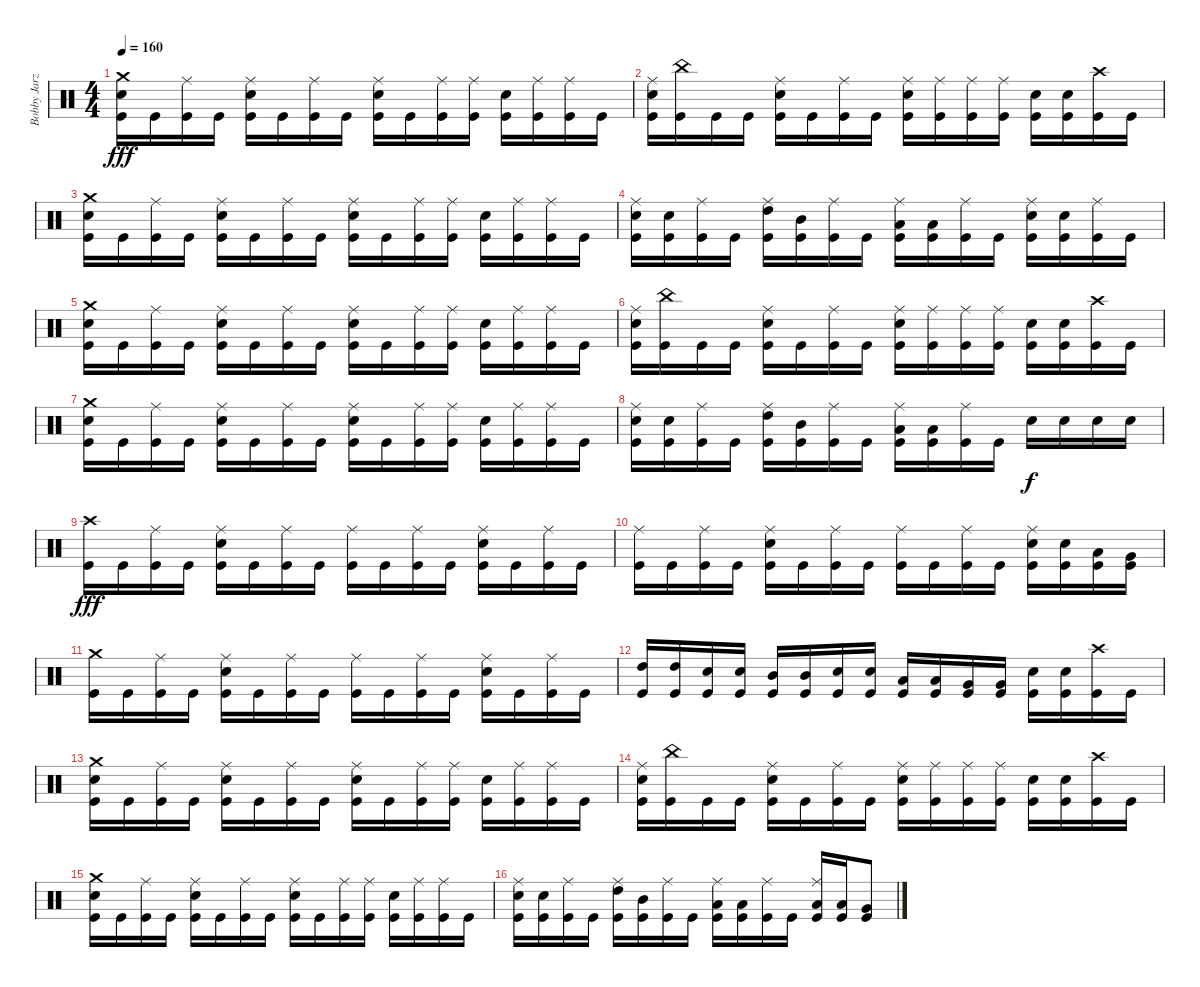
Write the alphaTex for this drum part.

\track ("Bobby Jarzombek" "Bobby Jarz") {instrument percussion}
\staff {score}
\articulation defaults
\ts (4 4)
\tempo 160
\clef neutral
\ks c
("Crash medium (hit)" "Electric Snare (hit)" "Kick (hit)").16{dy fff} "Kick (hit)".16 ("Ride (middle)" "Kick (hit)").16 "Kick (hit)".16 ("Ride (middle)" "Electric Snare (hit)" "Kick (hit)").16 "Kick (hit)".16 ("Ride (middle)" "Kick (hit)").16 "Kick (hit)".16 ("Ride (middle)" "Electric Snare (hit)" "Kick (hit)").16 "Kick (hit)".16 ("Ride (middle)" "Kick (hit)").16 ("Ride (middle)" "Kick (hit)").16 ("Electric Snare (hit)" "Kick (hit)").16 ("Ride (middle)" "Kick (hit)").16 ("Ride (middle)" "Kick (hit)").16 "Kick (hit)".16 |
("Ride (middle)" "Electric Snare (hit)" "Kick (hit)").16 ("China (hit)" "Kick (hit)").16 "Kick (hit)".16 "Kick (hit)".16 ("Ride (middle)" "Electric Snare (hit)" "Kick (hit)").16 "Kick (hit)".16 ("Ride (middle)" "Kick (hit)").16 "Kick (hit)".16 ("Ride (middle)" "Electric Snare (hit)" "Kick (hit)").16 ("Ride (middle)" "Kick (hit)").16 ("Ride (middle)" "Kick (hit)").16 ("Ride (middle)" "Kick (hit)").16 ("Electric Snare (hit)" "Kick (hit)").16 ("Electric Snare (hit)" "Kick (hit)").16 ("Crash high (hit)" "Kick (hit)").16 "Kick (hit)".16 |
("Crash medium (hit)" "Electric Snare (hit)" "Kick (hit)").16 "Kick (hit)".16 ("Ride (middle)" "Kick (hit)").16 "Kick (hit)".16 ("Ride (middle)" "Electric Snare (hit)" "Kick (hit)").16 "Kick (hit)".16 ("Ride (middle)" "Kick (hit)").16 "Kick (hit)".16 ("Ride (middle)" "Electric Snare (hit)" "Kick (hit)").16 "Kick (hit)".16 ("Ride (middle)" "Kick (hit)").16 ("Ride (middle)" "Kick (hit)").16 ("Electric Snare (hit)" "Kick (hit)").16 ("Ride (middle)" "Kick (hit)").16 ("Ride (middle)" "Kick (hit)").16 "Kick (hit)".16 |
("Ride (middle)" "Electric Snare (hit)" "Kick (hit)").16 ("Electric Snare (hit)" "Kick (hit)").16 ("Ride (middle)" "Kick (hit)").16 "Kick (hit)".16 ("Ride (middle)" "High Tom (hit)" "Kick (hit)").16 ("Mid Tom (hit)" "Kick (hit)").16 ("Ride (middle)" "Kick (hit)").16 "Kick (hit)".16 ("Ride (middle)" "Low Tom (hit)" "Kick (hit)").16 ("Low Tom (hit)" "Kick (hit)").16 ("Ride (middle)" "Kick (hit)").16 "Kick (hit)".16 ("Ride (middle)" "Electric Snare (hit)" "Kick (hit)").16 ("Electric Snare (hit)" "Kick (hit)").16 ("Ride (middle)" "Kick (hit)").16 "Kick (hit)".16 |
("Crash medium (hit)" "Electric Snare (hit)" "Kick (hit)").16 "Kick (hit)".16 ("Ride (middle)" "Kick (hit)").16 "Kick (hit)".16 ("Ride (middle)" "Electric Snare (hit)" "Kick (hit)").16 "Kick (hit)".16 ("Ride (middle)" "Kick (hit)").16 "Kick (hit)".16 ("Ride (middle)" "Electric Snare (hit)" "Kick (hit)").16 "Kick (hit)".16 ("Ride (middle)" "Kick (hit)").16 ("Ride (middle)" "Kick (hit)").16 ("Electric Snare (hit)" "Kick (hit)").16 ("Ride (middle)" "Kick (hit)").16 ("Ride (middle)" "Kick (hit)").16 "Kick (hit)".16 |
("Ride (middle)" "Electric Snare (hit)" "Kick (hit)").16 ("China (hit)" "Kick (hit)").16 "Kick (hit)".16 "Kick (hit)".16 ("Ride (middle)" "Electric Snare (hit)" "Kick (hit)").16 "Kick (hit)".16 ("Ride (middle)" "Kick (hit)").16 "Kick (hit)".16 ("Ride (middle)" "Electric Snare (hit)" "Kick (hit)").16 ("Ride (middle)" "Kick (hit)").16 ("Ride (middle)" "Kick (hit)").16 ("Ride (middle)" "Kick (hit)").16 ("Electric Snare (hit)" "Kick (hit)").16 ("Electric Snare (hit)" "Kick (hit)").16 ("Crash high (hit)" "Kick (hit)").16 "Kick (hit)".16 |
("Crash medium (hit)" "Electric Snare (hit)" "Kick (hit)").16 "Kick (hit)".16 ("Ride (middle)" "Kick (hit)").16 "Kick (hit)".16 ("Ride (middle)" "Electric Snare (hit)" "Kick (hit)").16 "Kick (hit)".16 ("Ride (middle)" "Kick (hit)").16 "Kick (hit)".16 ("Ride (middle)" "Electric Snare (hit)" "Kick (hit)").16 "Kick (hit)".16 ("Ride (middle)" "Kick (hit)").16 ("Ride (middle)" "Kick (hit)").16 ("Electric Snare (hit)" "Kick (hit)").16 ("Ride (middle)" "Kick (hit)").16 ("Ride (middle)" "Kick (hit)").16 "Kick (hit)".16 |
("Ride (middle)" "Electric Snare (hit)" "Kick (hit)").16 ("Electric Snare (hit)" "Kick (hit)").16 ("Ride (middle)" "Kick (hit)").16 "Kick (hit)".16 ("Ride (middle)" "High Tom (hit)" "Kick (hit)").16 ("Mid Tom (hit)" "Kick (hit)").16 ("Ride (middle)" "Kick (hit)").16 "Kick (hit)".16 ("Ride (middle)" "Low Tom (hit)" "Kick (hit)").16 ("Low Tom (hit)" "Kick (hit)").16 ("Ride (middle)" "Kick (hit)").16 "Kick (hit)".16 "Electric Snare (hit)".16{dy f} "Electric Snare (hit)".16 "Electric Snare (hit)".16 "Electric Snare (hit)".16 |
("Crash high (hit)" "Kick (hit)").16{dy fff} "Kick (hit)".16 ("Ride (middle)" "Kick (hit)").16 "Kick (hit)".16 ("Ride (middle)" "Electric Snare (hit)" "Kick (hit)").16 "Kick (hit)".16 ("Ride (middle)" "Kick (hit)").16 "Kick (hit)".16 ("Ride (middle)" "Kick (hit)").16 "Kick (hit)".16 ("Ride (middle)" "Kick (hit)").16 "Kick (hit)".16 ("Ride (middle)" "Electric Snare (hit)" "Kick (hit)").16 "Kick (hit)".16 ("Ride (middle)" "Kick (hit)").16 "Kick (hit)".16 |
("Ride (middle)" "Kick (hit)").16 "Kick (hit)".16 ("Ride (middle)" "Kick (hit)").16 "Kick (hit)".16 ("Ride (middle)" "Electric Snare (hit)" "Kick (hit)").16 "Kick (hit)".16 ("Ride (middle)" "Kick (hit)").16 "Kick (hit)".16 ("Ride (middle)" "Kick (hit)").16 "Kick (hit)".16 ("Ride (middle)" "Kick (hit)").16 "Kick (hit)".16 ("Ride (middle)" "Electric Snare (hit)" "Kick (hit)").16 ("Electric Snare (hit)" "Kick (hit)").16 ("Low Tom (hit)" "Kick (hit)").16 ("Very Low Tom (hit)" "Kick (hit)").16 |
("Crash medium (hit)" "Kick (hit)").16 "Kick (hit)".16 ("Ride (middle)" "Kick (hit)").16 "Kick (hit)".16 ("Ride (middle)" "Electric Snare (hit)" "Kick (hit)").16 "Kick (hit)".16 ("Ride (middle)" "Kick (hit)").16 "Kick (hit)".16 ("Ride (middle)" "Kick (hit)").16 "Kick (hit)".16 ("Ride (middle)" "Kick (hit)").16 "Kick (hit)".16 ("Ride (middle)" "Electric Snare (hit)" "Kick (hit)").16 "Kick (hit)".16 ("Ride (middle)" "Kick (hit)").16 "Kick (hit)".16 |
("High Tom (hit)" "Kick (hit)").16 ("High Tom (hit)" "Kick (hit)").16 ("Electric Snare (hit)" "Kick (hit)").16 ("Electric Snare (hit)" "Kick (hit)").16 ("Mid Tom (hit)" "Kick (hit)").16 ("Mid Tom (hit)" "Kick (hit)").16 ("Electric Snare (hit)" "Kick (hit)").16 ("Electric Snare (hit)" "Kick (hit)").16 ("Low Tom (hit)" "Kick (hit)").16 ("Low Tom (hit)" "Kick (hit)").16 ("Very Low Tom (hit)" "Kick (hit)").16 ("Very Low Tom (hit)" "Kick (hit)").16 ("Electric Snare (hit)" "Kick (hit)").16 ("Electric Snare (hit)" "Kick (hit)").16 ("Crash high (hit)" "Kick (hit)").16 "Kick (hit)".16 |
("Crash medium (hit)" "Electric Snare (hit)" "Kick (hit)").16 "Kick (hit)".16 ("Ride (middle)" "Kick (hit)").16 "Kick (hit)".16 ("Ride (middle)" "Electric Snare (hit)" "Kick (hit)").16 "Kick (hit)".16 ("Ride (middle)" "Kick (hit)").16 "Kick (hit)".16 ("Ride (middle)" "Electric Snare (hit)" "Kick (hit)").16 "Kick (hit)".16 ("Ride (middle)" "Kick (hit)").16 ("Ride (middle)" "Kick (hit)").16 ("Electric Snare (hit)" "Kick (hit)").16 ("Ride (middle)" "Kick (hit)").16 ("Ride (middle)" "Kick (hit)").16 "Kick (hit)".16 |
("Ride (middle)" "Electric Snare (hit)" "Kick (hit)").16 ("China (hit)" "Kick (hit)").16 "Kick (hit)".16 "Kick (hit)".16 ("Ride (middle)" "Electric Snare (hit)" "Kick (hit)").16 "Kick (hit)".16 ("Ride (middle)" "Kick (hit)").16 "Kick (hit)".16 ("Ride (middle)" "Electric Snare (hit)" "Kick (hit)").16 ("Ride (middle)" "Kick (hit)").16 ("Ride (middle)" "Kick (hit)").16 ("Ride (middle)" "Kick (hit)").16 ("Electric Snare (hit)" "Kick (hit)").16 ("Electric Snare (hit)" "Kick (hit)").16 ("Crash high (hit)" "Kick (hit)").16 "Kick (hit)".16 |
("Crash medium (hit)" "Electric Snare (hit)" "Kick (hit)").16 "Kick (hit)".16 ("Ride (middle)" "Kick (hit)").16 "Kick (hit)".16 ("Ride (middle)" "Electric Snare (hit)" "Kick (hit)").16 "Kick (hit)".16 ("Ride (middle)" "Kick (hit)").16 "Kick (hit)".16 ("Ride (middle)" "Electric Snare (hit)" "Kick (hit)").16 "Kick (hit)".16 ("Ride (middle)" "Kick (hit)").16 ("Ride (middle)" "Kick (hit)").16 ("Electric Snare (hit)" "Kick (hit)").16 ("Ride (middle)" "Kick (hit)").16 ("Ride (middle)" "Kick (hit)").16 "Kick (hit)".16 |
("Ride (middle)" "Electric Snare (hit)" "Kick (hit)").16 ("Electric Snare (hit)" "Kick (hit)").16 ("Ride (middle)" "Kick (hit)").16 "Kick (hit)".16 ("Ride (middle)" "High Tom (hit)" "Kick (hit)").16 ("Mid Tom (hit)" "Kick (hit)").16 ("Ride (middle)" "Kick (hit)").16 "Kick (hit)".16 ("Ride (middle)" "Low Tom (hit)" "Kick (hit)").16 ("Low Tom (hit)" "Kick (hit)").16 ("Ride (middle)" "Kick (hit)").16 "Kick (hit)".16 ("Ride (middle)" "Low Tom (hit)" "Kick (hit)").16 ("Low Tom (hit)" "Kick (hit)").16 ("Very Low Tom (hit)" "Kick (hit)").8
